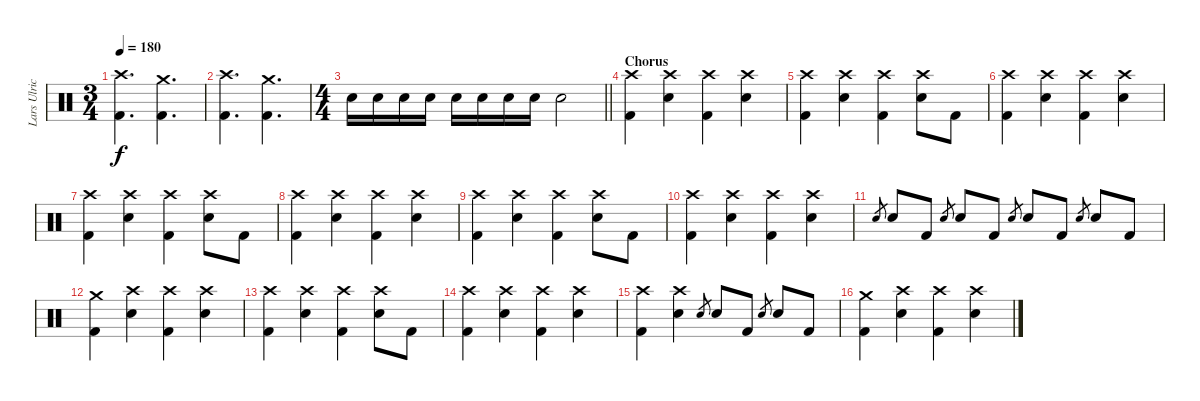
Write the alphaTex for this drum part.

\track ("Lars Ulrich" "Lars Ulric") {instrument percussion}
\staff {score}
\articulation defaults
\ts (3 4)
\tempo 180
\clef neutral
\ks c
("Crash high (hit)" "Kick (hit) 2").4{d dy f} ("Crash medium (hit)" "Kick (hit) 2").4{d} |
("Crash high (hit)" "Kick (hit) 2").4{d} ("Crash medium (hit)" "Kick (hit) 2").4{d} |
\ts (4 4)
\barLineRight lightlight "Electric Snare (hit)".16 "Electric Snare (hit)".16 "Electric Snare (hit)".16 "Electric Snare (hit)".16 "Electric Snare (hit)".16 "Electric Snare (hit)".16 "Electric Snare (hit)".16 "Electric Snare (hit)".16 "Electric Snare (hit)".2
|
\section ("" "Chorus")
("Crash high (hit)" "Kick (hit) 2").4 ("Crash high (hit)" "Electric Snare (hit)").4 ("Crash high (hit)" "Kick (hit) 2").4 ("Crash high (hit)" "Electric Snare (hit)").4 |
("Crash high (hit)" "Kick (hit) 2").4 ("Crash high (hit)" "Electric Snare (hit)").4 ("Crash high (hit)" "Kick (hit) 2").4 ("Crash high (hit)" "Electric Snare (hit)").8 "Kick (hit) 2".8 |
("Crash high (hit)" "Kick (hit) 2").4 ("Crash high (hit)" "Electric Snare (hit)").4 ("Crash high (hit)" "Kick (hit) 2").4 ("Crash high (hit)" "Electric Snare (hit)").4 |
("Crash high (hit)" "Kick (hit) 2").4 ("Crash high (hit)" "Electric Snare (hit)").4 ("Crash high (hit)" "Kick (hit) 2").4 ("Crash high (hit)" "Electric Snare (hit)").8 "Kick (hit) 2".8 |
("Crash high (hit)" "Kick (hit) 2").4 ("Crash high (hit)" "Electric Snare (hit)").4 ("Crash high (hit)" "Kick (hit) 2").4 ("Crash high (hit)" "Electric Snare (hit)").4 |
("Crash high (hit)" "Kick (hit) 2").4 ("Crash high (hit)" "Electric Snare (hit)").4 ("Crash high (hit)" "Kick (hit) 2").4 ("Crash high (hit)" "Electric Snare (hit)").8 "Kick (hit) 2".8 |
("Crash high (hit)" "Kick (hit) 2").4 ("Crash high (hit)" "Electric Snare (hit)").4 ("Crash high (hit)" "Kick (hit) 2").4 ("Crash high (hit)" "Electric Snare (hit)").4 |
"Electric Snare (hit)".8{gr} "Electric Snare (hit)".8 "Kick (hit) 2".8 "Electric Snare (hit)".8{gr} "Electric Snare (hit)".8 "Kick (hit) 2".8 "Electric Snare (hit)".8{gr} "Electric Snare (hit)".8 "Kick (hit) 2".8 "Electric Snare (hit)".8{gr} "Electric Snare (hit)".8 "Kick (hit) 2".8 |
("Crash medium (hit)" "Kick (hit) 2").4 ("Crash high (hit)" "Electric Snare (hit)").4 ("Crash high (hit)" "Kick (hit) 2").4 ("Crash high (hit)" "Electric Snare (hit)").4 |
("Crash high (hit)" "Kick (hit) 2").4 ("Crash high (hit)" "Electric Snare (hit)").4 ("Crash high (hit)" "Kick (hit) 2").4 ("Crash high (hit)" "Electric Snare (hit)").8 "Kick (hit) 2".8 |
("Crash high (hit)" "Kick (hit) 2").4 ("Crash high (hit)" "Electric Snare (hit)").4 ("Crash high (hit)" "Kick (hit) 2").4 ("Crash high (hit)" "Electric Snare (hit)").4 |
("Crash high (hit)" "Kick (hit) 2").4 ("Crash high (hit)" "Electric Snare (hit)").4 "Electric Snare (hit)".8{gr} "Electric Snare (hit)".8 "Kick (hit) 2".8 "Electric Snare (hit)".8{gr} "Electric Snare (hit)".8 "Kick (hit) 2".8 |
("Crash medium (hit)" "Kick (hit) 2").4 ("Crash high (hit)" "Electric Snare (hit)").4 ("Crash high (hit)" "Kick (hit) 2").4 ("Crash high (hit)" "Electric Snare (hit)").4
